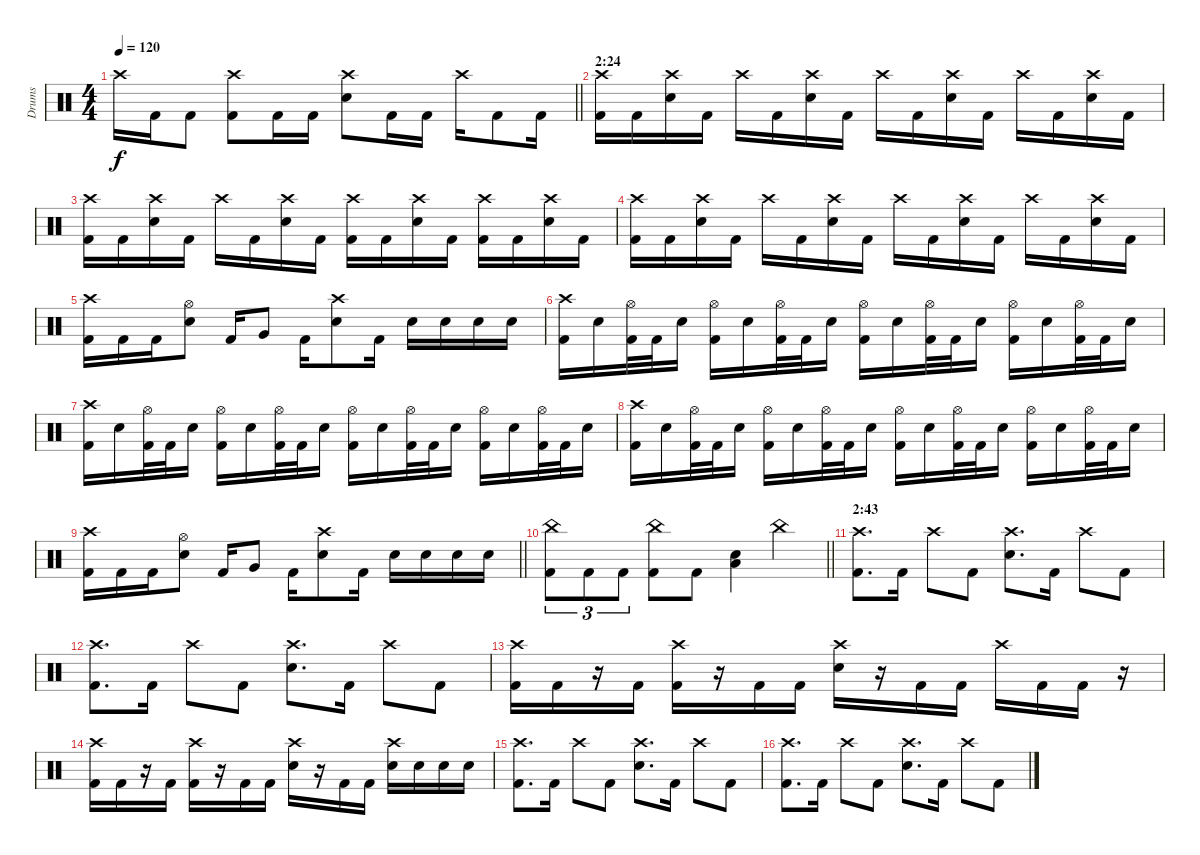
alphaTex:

\track ("Drums" "Drums") {instrument percussion}
\staff {score}
\articulation defaults
\ts (4 4)
\tempo 120
\clef neutral
\barLineRight lightlight
\ks c "Crash high (hit)".16{dy f} "Kick (hit) 2".16 "Kick (hit) 2".8
("Crash high (hit)" "Kick (hit) 2").8 "Kick (hit) 2".16 "Kick (hit) 2".16 ("Crash high (hit)" "Electric Snare (hit)").8 "Kick (hit) 2".16 "Kick (hit) 2".16 "Crash high (hit)".16 "Kick (hit) 2".8 "Kick (hit) 2".16 |
\section ("" "2:24")
("Crash high (hit)" "Kick (hit) 2").16 "Kick (hit) 2".16 ("Crash high (hit)" "Electric Snare (hit)").16 "Kick (hit) 2".16 "Crash high (hit)".16 "Kick (hit) 2".16 ("Crash high (hit)" "Electric Snare (hit)").16 "Kick (hit) 2".16 "Crash high (hit)".16 "Kick (hit) 2".16 ("Crash high (hit)" "Electric Snare (hit)").16 "Kick (hit) 2".16 "Crash high (hit)".16 "Kick (hit) 2".16 ("Crash high (hit)" "Electric Snare (hit)").16 "Kick (hit) 2".16 |
("Crash high (hit)" "Kick (hit) 2").16 "Kick (hit) 2".16 ("Crash high (hit)" "Electric Snare (hit)").16 "Kick (hit) 2".16 "Crash high (hit)".16 "Kick (hit) 2".16 ("Crash high (hit)" "Electric Snare (hit)").16 "Kick (hit) 2".16 ("Crash high (hit)" "Kick (hit) 2").16 "Kick (hit) 2".16 ("Crash high (hit)" "Electric Snare (hit)").16 "Kick (hit) 2".16 ("Crash high (hit)" "Kick (hit) 2").16 "Kick (hit) 2".16 ("Crash high (hit)" "Electric Snare (hit)").16 "Kick (hit) 2".16 |
("Crash high (hit)" "Kick (hit) 2").16 "Kick (hit) 2".16 ("Crash high (hit)" "Electric Snare (hit)").16 "Kick (hit) 2".16 "Crash high (hit)".16 "Kick (hit) 2".16 ("Crash high (hit)" "Electric Snare (hit)").16 "Kick (hit) 2".16 "Crash high (hit)".16 "Kick (hit) 2".16 ("Crash high (hit)" "Electric Snare (hit)").16 "Kick (hit) 2".16 "Crash high (hit)".16 "Kick (hit) 2".16 ("Crash high (hit)" "Electric Snare (hit)").16 "Kick (hit) 2".16 |
("Crash high (hit)" "Kick (hit) 2").16 "Kick (hit) 2".16 "Kick (hit) 2".16 ("Hi-Hat (open)" "Electric Snare (hit)").8 "Kick (hit) 2".16 "Very Low Tom (hit)".8 "Kick (hit) 2".16 ("Crash high (hit)" "Electric Snare (hit)").8 "Kick (hit) 2".16 "Electric Snare (hit)".16 "Electric Snare (hit)".16 "Electric Snare (hit)".16 "Electric Snare (hit)".16 |
("Crash high (hit)" "Kick (hit) 2").16 "Electric Snare (hit)".16 ("Hi-Hat (open)" "Kick (hit) 2").32 "Kick (hit) 2".32 "Electric Snare (hit)".16 ("Hi-Hat (open)" "Kick (hit) 2").16 "Electric Snare (hit)".16 ("Hi-Hat (open)" "Kick (hit) 2").32 "Kick (hit) 2".32 "Electric Snare (hit)".16 ("Hi-Hat (open)" "Kick (hit) 2").16 "Electric Snare (hit)".16 ("Hi-Hat (open)" "Kick (hit) 2").32 "Kick (hit) 2".32 "Electric Snare (hit)".16 ("Hi-Hat (open)" "Kick (hit) 2").16 "Electric Snare (hit)".16 ("Hi-Hat (open)" "Kick (hit) 2").32 "Kick (hit) 2".32 "Electric Snare (hit)".16 |
("Crash high (hit)" "Kick (hit) 2").16 "Electric Snare (hit)".16 ("Hi-Hat (open)" "Kick (hit) 2").32 "Kick (hit) 2".32 "Electric Snare (hit)".16 ("Hi-Hat (open)" "Kick (hit) 2").16 "Electric Snare (hit)".16 ("Hi-Hat (open)" "Kick (hit) 2").32 "Kick (hit) 2".32 "Electric Snare (hit)".16 ("Hi-Hat (open)" "Kick (hit) 2").16 "Electric Snare (hit)".16 ("Hi-Hat (open)" "Kick (hit) 2").32 "Kick (hit) 2".32 "Electric Snare (hit)".16 ("Hi-Hat (open)" "Kick (hit) 2").16 "Electric Snare (hit)".16 ("Hi-Hat (open)" "Kick (hit) 2").32 "Kick (hit) 2".32 "Electric Snare (hit)".16 |
("Crash high (hit)" "Kick (hit) 2").16 "Electric Snare (hit)".16 ("Hi-Hat (open)" "Kick (hit) 2").32 "Kick (hit) 2".32 "Electric Snare (hit)".16 ("Hi-Hat (open)" "Kick (hit) 2").16 "Electric Snare (hit)".16 ("Hi-Hat (open)" "Kick (hit) 2").32 "Kick (hit) 2".32 "Electric Snare (hit)".16 ("Hi-Hat (open)" "Kick (hit) 2").16 "Electric Snare (hit)".16 ("Hi-Hat (open)" "Kick (hit) 2").32 "Kick (hit) 2".32 "Electric Snare (hit)".16 ("Hi-Hat (open)" "Kick (hit) 2").16 "Electric Snare (hit)".16 ("Hi-Hat (open)" "Kick (hit) 2").32 "Kick (hit) 2".32 "Electric Snare (hit)".16 |
\barLineRight lightlight
("Crash high (hit)" "Kick (hit) 2").16 "Kick (hit) 2".16 "Kick (hit) 2".16 ("Hi-Hat (open)" "Electric Snare (hit)").8 "Kick (hit) 2".16 "Very Low Tom (hit)".8 "Kick (hit) 2".16 ("Crash high (hit)" "Electric Snare (hit)").8 "Kick (hit) 2".16 "Electric Snare (hit)".16 "Electric Snare (hit)".16 "Electric Snare (hit)".16 "Electric Snare (hit)".16 |
\barLineRight lightlight
("China (hit)" "Kick (hit) 2").8{tu (3 2)} "Kick (hit) 2".8{tu (3 2)} "Kick (hit) 2".8{tu (3 2)} ("China (hit)" "Kick (hit) 2").8 "Kick (hit) 2".8 ("Electric Snare (hit)" "Low Floor Tom (hit)").4 "China (hit)".4 |
\section ("" "2:43")
("Crash high (hit)" "Kick (hit) 2").8{d} "Kick (hit) 2".16 "Crash high (hit)".8 "Kick (hit) 2".8 ("Crash high (hit)" "Electric Snare (hit)").8{d} "Kick (hit) 2".16 "Crash high (hit)".8 "Kick (hit) 2".8 |
("Crash high (hit)" "Kick (hit) 2").8{d} "Kick (hit) 2".16 "Crash high (hit)".8 "Kick (hit) 2".8 ("Crash high (hit)" "Electric Snare (hit)").8{d} "Kick (hit) 2".16 "Crash high (hit)".8 "Kick (hit) 2".8 |
("Crash high (hit)" "Kick (hit) 2").16 "Kick (hit) 2".16 r.16 "Kick (hit) 2".16 ("Crash high (hit)" "Kick (hit) 2").16 r.16 "Kick (hit) 2".16 "Kick (hit) 2".16 ("Crash high (hit)" "Electric Snare (hit)").16 r.16 "Kick (hit) 2".16 "Kick (hit) 2".16 "Crash high (hit)".16 "Kick (hit) 2".16 "Kick (hit) 2".16 r.16 |
("Crash high (hit)" "Kick (hit) 2").16 "Kick (hit) 2".16 r.16 "Kick (hit) 2".16 ("Crash high (hit)" "Kick (hit) 2").16 r.16 "Kick (hit) 2".16 "Kick (hit) 2".16 ("Crash high (hit)" "Electric Snare (hit)").16 r.16 "Kick (hit) 2".16 "Kick (hit) 2".16 ("Crash high (hit)" "Electric Snare (hit)").16 "Electric Snare (hit)".16 "Electric Snare (hit)".16 "Electric Snare (hit)".16 |
("Crash high (hit)" "Kick (hit) 2").8{d} "Kick (hit) 2".16 "Crash high (hit)".8 "Kick (hit) 2".8 ("Crash high (hit)" "Electric Snare (hit)").8{d} "Kick (hit) 2".16 "Crash high (hit)".8 "Kick (hit) 2".8 |
("Crash high (hit)" "Kick (hit) 2").8{d} "Kick (hit) 2".16 "Crash high (hit)".8 "Kick (hit) 2".8 ("Crash high (hit)" "Electric Snare (hit)").8{d} "Kick (hit) 2".16 "Crash high (hit)".8 "Kick (hit) 2".8
